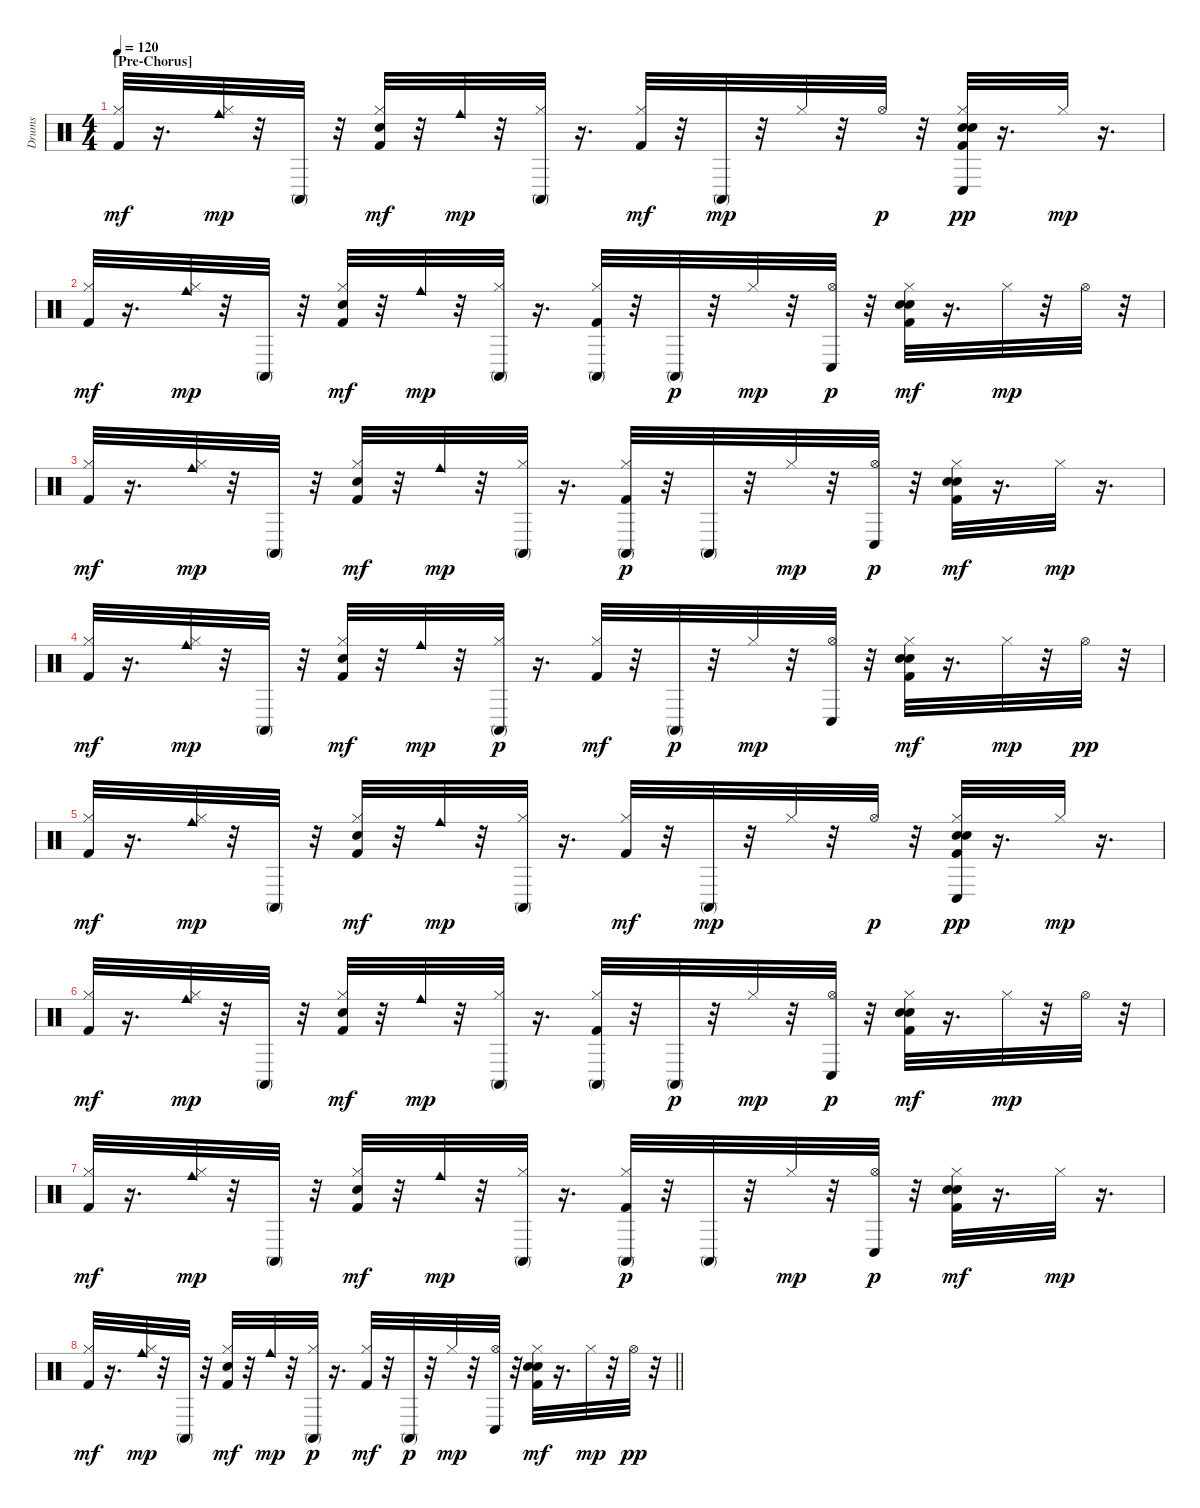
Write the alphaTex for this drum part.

\track ("Drums" "Drums") {instrument percussion}
\staff {score}
\articulation defaults
\ts (4 4)
\section ("" "[Pre-Chorus]")
\tempo 120
\clef neutral
\ks c
("Hi-Hat (closed)" "Kick (hit) 2").32{dy mf} r.16{d} ("Hi-Hat (closed)" "Cowbell medium (hit)").32{dy mp} r.32 "Conga high (mute)".32 r.32 ("Hi-Hat (closed)" "Electric Snare (hit)" "Kick (hit) 2").32{dy mf} r.32 "Cowbell medium (hit)".32{dy mp} r.32 ("Hi-Hat (closed)" "Conga high (mute)").32 r.16{d} ("Hi-Hat (closed)" "Kick (hit) 2").32{dy mf} r.32 "Conga high (mute)".32{dy mp} r.32 "Hi-Hat (closed)".32 r.32 "Hi-Hat (open)".32{dy p} r.32 ("Hi-Hat (closed)" "Kick (hit) 2" "Hand Clap (hit)" "Electric Snare (hit)" "Conga low (hit)").32{dy pp} r.16{d} "Hi-Hat (closed)".32{dy mp} r.16{d} |
("Hi-Hat (closed)" "Kick (hit) 2").32{dy mf} r.16{d} ("Hi-Hat (closed)" "Cowbell medium (hit)").32{dy mp} r.32 "Conga high (mute)".32 r.32 ("Hi-Hat (closed)" "Electric Snare (hit)" "Kick (hit) 2").32{dy mf} r.32 "Cowbell medium (hit)".32{dy mp} r.32 ("Hi-Hat (closed)" "Conga high (mute)").32 r.16{d} ("Hi-Hat (closed)" "Kick (hit) 2" "Conga high (mute)").32 r.32 "Conga high (mute)".32{dy p} r.32 "Hi-Hat (closed)".32{dy mp} r.32 ("Hi-Hat (open)" "Conga low (hit)").32{dy p} r.32 ("Kick (hit) 2" "Hi-Hat (closed)" "Electric Snare (hit)" "Hand Clap (hit)").32{dy mf} r.16{d} "Hi-Hat (closed)".32{dy mp} r.32 "Hi-Hat (open)".32 r.32 |
("Hi-Hat (closed)" "Kick (hit) 2").32{dy mf} r.16{d} ("Hi-Hat (closed)" "Cowbell medium (hit)").32{dy mp} r.32 "Conga high (mute)".32 r.32 ("Hi-Hat (closed)" "Electric Snare (hit)" "Kick (hit) 2").32{dy mf} r.32 "Cowbell medium (hit)".32{dy mp} r.32 ("Hi-Hat (closed)" "Conga high (mute)").32 r.16{d} ("Kick (hit) 2" "Hi-Hat (closed)" "Conga high (mute)").32{dy p} r.32 "Conga high (mute)".32 r.32 "Hi-Hat (closed)".32{dy mp} r.32 ("Hi-Hat (open)" "Conga low (hit)").32{dy p} r.32 ("Hi-Hat (closed)" "Hand Clap (hit)" "Electric Snare (hit)" "Kick (hit) 2").32{dy mf} r.16{d} "Hi-Hat (closed)".32{dy mp} r.16{d} |
("Hi-Hat (closed)" "Kick (hit) 2").32{dy mf} r.16{d} ("Hi-Hat (closed)" "Cowbell medium (hit)").32{dy mp} r.32 "Conga high (mute)".32 r.32 ("Hi-Hat (closed)" "Electric Snare (hit)" "Kick (hit) 2").32{dy mf} r.32 "Cowbell medium (hit)".32{dy mp} r.32 ("Hi-Hat (closed)" "Conga high (mute)").32{dy p} r.16{d} ("Hi-Hat (closed)" "Kick (hit) 2").32{dy mf} r.32 "Conga high (mute)".32{dy p} r.32 "Hi-Hat (closed)".32{dy mp} r.32 ("Hi-Hat (open)" "Conga low (hit)").32 r.32 ("Kick (hit) 2" "Hi-Hat (closed)" "Electric Snare (hit)" "Hand Clap (hit)").32{dy mf} r.16{d} "Hi-Hat (closed)".32{dy mp} r.32 "Hi-Hat (open)".32{dy pp} r.32 |
("Hi-Hat (closed)" "Kick (hit) 2").32{dy mf} r.16{d} ("Hi-Hat (closed)" "Cowbell medium (hit)").32{dy mp} r.32 "Conga high (mute)".32 r.32 ("Hi-Hat (closed)" "Electric Snare (hit)" "Kick (hit) 2").32{dy mf} r.32 "Cowbell medium (hit)".32{dy mp} r.32 ("Hi-Hat (closed)" "Conga high (mute)").32 r.16{d} ("Hi-Hat (closed)" "Kick (hit) 2").32{dy mf} r.32 "Conga high (mute)".32{dy mp} r.32 "Hi-Hat (closed)".32 r.32 "Hi-Hat (open)".32{dy p} r.32 ("Hi-Hat (closed)" "Kick (hit) 2" "Hand Clap (hit)" "Electric Snare (hit)" "Conga low (hit)").32{dy pp} r.16{d} "Hi-Hat (closed)".32{dy mp} r.16{d} |
("Hi-Hat (closed)" "Kick (hit) 2").32{dy mf} r.16{d} ("Hi-Hat (closed)" "Cowbell medium (hit)").32{dy mp} r.32 "Conga high (mute)".32 r.32 ("Hi-Hat (closed)" "Electric Snare (hit)" "Kick (hit) 2").32{dy mf} r.32 "Cowbell medium (hit)".32{dy mp} r.32 ("Hi-Hat (closed)" "Conga high (mute)").32 r.16{d} ("Hi-Hat (closed)" "Kick (hit) 2" "Conga high (mute)").32 r.32 "Conga high (mute)".32{dy p} r.32 "Hi-Hat (closed)".32{dy mp} r.32 ("Hi-Hat (open)" "Conga low (hit)").32{dy p} r.32 ("Kick (hit) 2" "Hi-Hat (closed)" "Electric Snare (hit)" "Hand Clap (hit)").32{dy mf} r.16{d} "Hi-Hat (closed)".32{dy mp} r.32 "Hi-Hat (open)".32 r.32 |
("Hi-Hat (closed)" "Kick (hit) 2").32{dy mf} r.16{d} ("Hi-Hat (closed)" "Cowbell medium (hit)").32{dy mp} r.32 "Conga high (mute)".32 r.32 ("Hi-Hat (closed)" "Electric Snare (hit)" "Kick (hit) 2").32{dy mf} r.32 "Cowbell medium (hit)".32{dy mp} r.32 ("Hi-Hat (closed)" "Conga high (mute)").32 r.16{d} ("Kick (hit) 2" "Hi-Hat (closed)" "Conga high (mute)").32{dy p} r.32 "Conga high (mute)".32 r.32 "Hi-Hat (closed)".32{dy mp} r.32 ("Hi-Hat (open)" "Conga low (hit)").32{dy p} r.32 ("Hi-Hat (closed)" "Hand Clap (hit)" "Electric Snare (hit)" "Kick (hit) 2").32{dy mf} r.16{d} "Hi-Hat (closed)".32{dy mp} r.16{d} |
\barLineRight lightlight
("Hi-Hat (closed)" "Kick (hit) 2").32{dy mf} r.16{d} ("Hi-Hat (closed)" "Cowbell medium (hit)").32{dy mp} r.32 "Conga high (mute)".32 r.32 ("Hi-Hat (closed)" "Electric Snare (hit)" "Kick (hit) 2").32{dy mf} r.32 "Cowbell medium (hit)".32{dy mp} r.32 ("Hi-Hat (closed)" "Conga high (mute)").32{dy p} r.16{d} ("Hi-Hat (closed)" "Kick (hit) 2").32{dy mf} r.32 "Conga high (mute)".32{dy p} r.32 "Hi-Hat (closed)".32{dy mp} r.32 ("Hi-Hat (open)" "Conga low (hit)").32 r.32 ("Kick (hit) 2" "Hi-Hat (closed)" "Electric Snare (hit)" "Hand Clap (hit)").32{dy mf} r.16{d} "Hi-Hat (closed)".32{dy mp} r.32 "Hi-Hat (open)".32{dy pp} r.32
